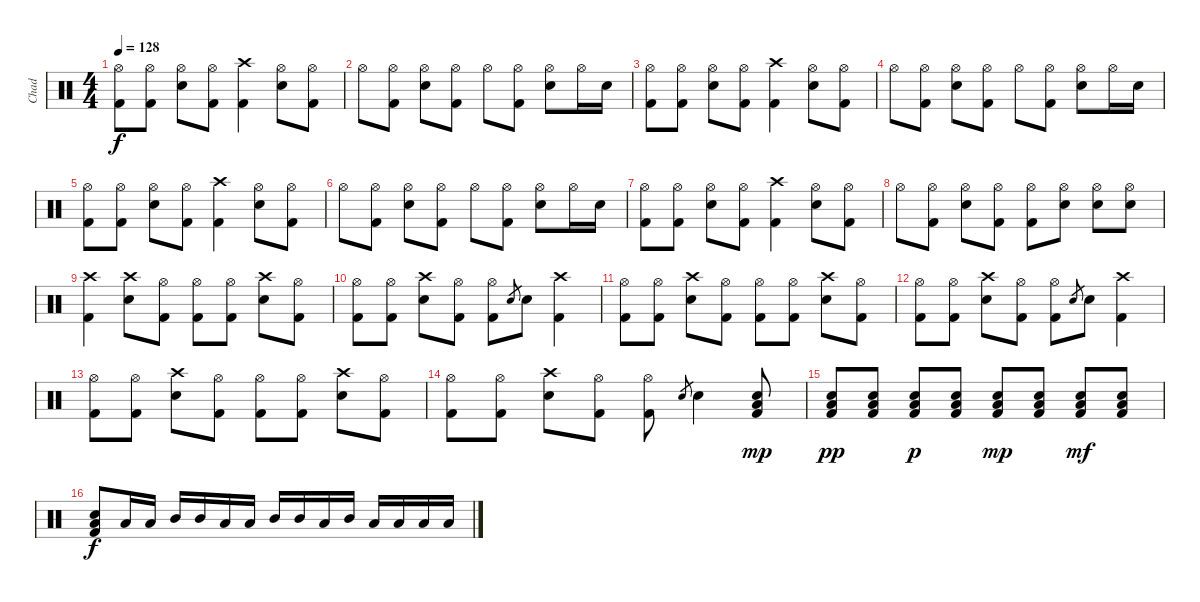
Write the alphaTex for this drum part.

\track ("Chad" "Chad") {instrument percussion}
\staff {score}
\articulation defaults
\ts (4 4)
\tempo 128
\clef neutral
\ks c
("Hi-Hat (open)" "Kick (hit) 2").8{dy f} ("Hi-Hat (open)" "Kick (hit) 2").8 ("Hi-Hat (open)" "Snare (hit) 2").8 ("Hi-Hat (open)" "Kick (hit) 2").8 ("Crash high (hit)" "Kick (hit) 2").4 ("Hi-Hat (open)" "Snare (hit) 2").8 ("Hi-Hat (open)" "Kick (hit) 2").8 |
"Hi-Hat (open)".8 ("Hi-Hat (open)" "Kick (hit) 2").8 ("Hi-Hat (open)" "Snare (hit) 2").8 ("Hi-Hat (open)" "Kick (hit) 2").8 "Hi-Hat (open)".8 ("Hi-Hat (open)" "Kick (hit) 2").8 ("Hi-Hat (open)" "Snare (hit) 2").8 "Hi-Hat (open)".16 "Snare (hit) 2".16 |
("Hi-Hat (open)" "Kick (hit) 2").8 ("Hi-Hat (open)" "Kick (hit) 2").8 ("Hi-Hat (open)" "Snare (hit) 2").8 ("Hi-Hat (open)" "Kick (hit) 2").8 ("Crash high (hit)" "Kick (hit) 2").4 ("Hi-Hat (open)" "Snare (hit) 2").8 ("Hi-Hat (open)" "Kick (hit) 2").8 |
"Hi-Hat (open)".8 ("Hi-Hat (open)" "Kick (hit) 2").8 ("Hi-Hat (open)" "Snare (hit) 2").8 ("Hi-Hat (open)" "Kick (hit) 2").8 "Hi-Hat (open)".8 ("Hi-Hat (open)" "Kick (hit) 2").8 ("Hi-Hat (open)" "Snare (hit) 2").8 "Hi-Hat (open)".16 "Snare (hit) 2".16 |
("Hi-Hat (open)" "Kick (hit) 2").8 ("Hi-Hat (open)" "Kick (hit) 2").8 ("Hi-Hat (open)" "Snare (hit) 2").8 ("Hi-Hat (open)" "Kick (hit) 2").8 ("Crash high (hit)" "Kick (hit) 2").4 ("Hi-Hat (open)" "Snare (hit) 2").8 ("Hi-Hat (open)" "Kick (hit) 2").8 |
"Hi-Hat (open)".8 ("Hi-Hat (open)" "Kick (hit) 2").8 ("Hi-Hat (open)" "Snare (hit) 2").8 ("Hi-Hat (open)" "Kick (hit) 2").8 "Hi-Hat (open)".8 ("Hi-Hat (open)" "Kick (hit) 2").8 ("Hi-Hat (open)" "Snare (hit) 2").8 "Hi-Hat (open)".16 "Snare (hit) 2".16 |
("Hi-Hat (open)" "Kick (hit) 2").8 ("Hi-Hat (open)" "Kick (hit) 2").8 ("Hi-Hat (open)" "Snare (hit) 2").8 ("Hi-Hat (open)" "Kick (hit) 2").8 ("Crash high (hit)" "Kick (hit) 2").4 ("Hi-Hat (open)" "Snare (hit) 2").8 ("Hi-Hat (open)" "Kick (hit) 2").8 |
"Hi-Hat (open)".8 ("Hi-Hat (open)" "Kick (hit) 2").8 ("Hi-Hat (open)" "Snare (hit) 2").8 ("Hi-Hat (open)" "Kick (hit) 2").8 ("Hi-Hat (open)" "Kick (hit) 2").8 ("Hi-Hat (open)" "Snare (hit) 2").8 ("Hi-Hat (open)" "Snare (hit) 2").8 ("Hi-Hat (open)" "Snare (hit) 2").8 |
("Crash high (hit)" "Kick (hit) 2").4 ("Crash high (hit)" "Snare (hit) 2").8 ("Hi-Hat (open)" "Kick (hit) 2").8 ("Hi-Hat (open)" "Kick (hit) 2").8 ("Hi-Hat (open)" "Kick (hit) 2").8 ("Crash high (hit)" "Snare (hit) 2").8 ("Hi-Hat (open)" "Kick (hit) 2").8 |
("Hi-Hat (open)" "Kick (hit) 2").8 ("Hi-Hat (open)" "Kick (hit) 2").8 ("Crash high (hit)" "Snare (hit) 2").8 ("Hi-Hat (open)" "Kick (hit) 2").8 ("Hi-Hat (open)" "Kick (hit) 2").8 "Snare (hit) 2".8{gr} "Snare (hit) 2".8 ("Crash high (hit)" "Kick (hit) 2").4 |
("Hi-Hat (open)" "Kick (hit) 2").8 ("Hi-Hat (open)" "Kick (hit) 2").8 ("Crash high (hit)" "Snare (hit) 2").8 ("Hi-Hat (open)" "Kick (hit) 2").8 ("Hi-Hat (open)" "Kick (hit) 2").8 ("Hi-Hat (open)" "Kick (hit) 2").8 ("Crash high (hit)" "Snare (hit) 2").8 ("Hi-Hat (open)" "Kick (hit) 2").8 |
("Hi-Hat (open)" "Kick (hit) 2").8 ("Hi-Hat (open)" "Kick (hit) 2").8 ("Crash high (hit)" "Snare (hit) 2").8 ("Hi-Hat (open)" "Kick (hit) 2").8 ("Hi-Hat (open)" "Kick (hit) 2").8 "Snare (hit) 2".8{gr} "Snare (hit) 2".8 ("Crash high (hit)" "Kick (hit) 2").4 |
("Hi-Hat (open)" "Kick (hit) 2").8 ("Hi-Hat (open)" "Kick (hit) 2").8 ("Crash high (hit)" "Snare (hit) 2").8 ("Hi-Hat (open)" "Kick (hit) 2").8 ("Hi-Hat (open)" "Kick (hit) 2").8 ("Hi-Hat (open)" "Kick (hit) 2").8 ("Crash high (hit)" "Snare (hit) 2").8 ("Hi-Hat (open)" "Kick (hit) 2").8 |
("Hi-Hat (open)" "Kick (hit) 2").8 ("Hi-Hat (open)" "Kick (hit) 2").8 ("Crash high (hit)" "Snare (hit) 2").8 ("Hi-Hat (open)" "Kick (hit) 2").8 ("Hi-Hat (open)" "Kick (hit) 2").8 "Snare (hit) 2".8{gr} "Snare (hit) 2".4 ("Low Tom (hit)" "Snare (hit) 2" "Kick (hit) 2").8{dy mp} |
("Low Tom (hit)" "Snare (hit) 2" "Kick (hit) 2").8{dy pp} ("Low Tom (hit)" "Snare (hit) 2" "Kick (hit) 2").8 ("Low Tom (hit)" "Snare (hit) 2" "Kick (hit) 2").8{dy p} ("Low Tom (hit)" "Snare (hit) 2" "Kick (hit) 2").8 ("Low Tom (hit)" "Snare (hit) 2" "Kick (hit) 2").8{dy mp} ("Low Tom (hit)" "Snare (hit) 2" "Kick (hit) 2").8 ("Low Tom (hit)" "Snare (hit) 2" "Kick (hit) 2").8{dy mf} ("Low Tom (hit)" "Snare (hit) 2" "Kick (hit) 2").8 |
("Low Tom (hit)" "Snare (hit) 2" "Kick (hit) 2").8{dy f} "Low Tom (hit)".16 "Low Tom (hit)".16 "Mid Tom (hit)".16 "Mid Tom (hit)".16 "Low Tom (hit)".16 "Low Tom (hit)".16 "Mid Tom (hit)".16 "Mid Tom (hit)".16 "Low Tom (hit)".16 "Mid Tom (hit)".16 "Low Tom (hit)".16 "Low Tom (hit)".16 "Low Tom (hit)".16 "Low Tom (hit)".16
